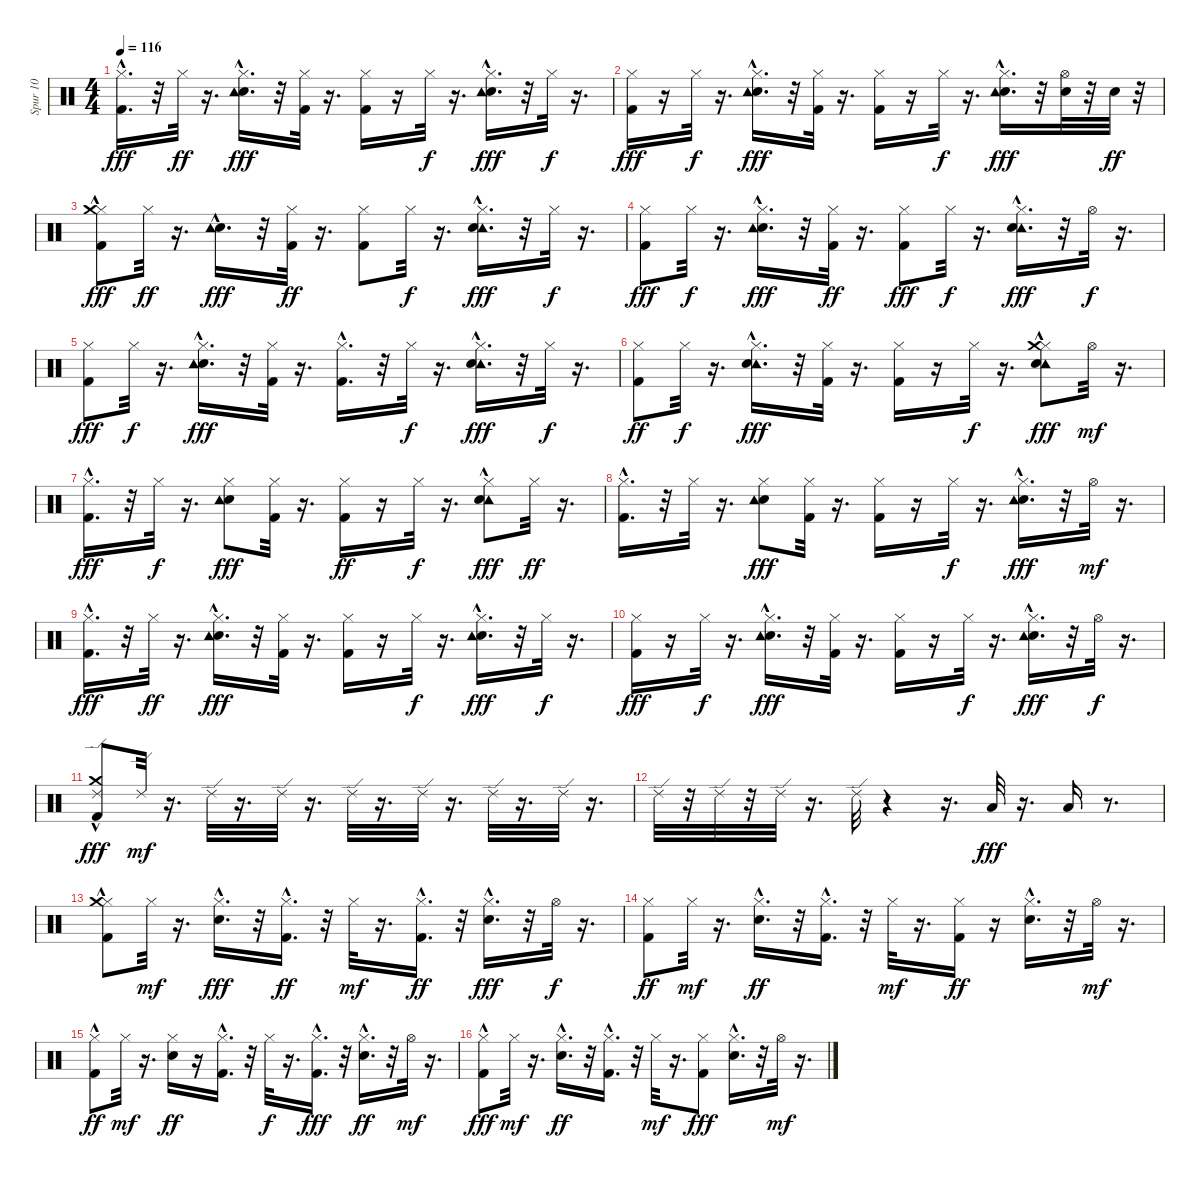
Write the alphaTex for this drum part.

\track ("Spur 10" "Spur 10") {instrument percussion}
\staff {score}
\articulation defaults
\ts (4 4)
\tempo 116
\clef neutral
\ks c
("Kick (hit) 2"{hac} "Hi-Hat (closed)").16{d dy fff} r.32 "Hi-Hat (closed)".32{dy ff} r.16{d} ("Hi-Hat (closed)" "Snare (hit) 2"{hac} "Tambourine (hit)"{hac}).16{d dy fff} r.32 ("Kick (hit) 2" "Hi-Hat (closed)").32 r.16{d} ("Kick (hit) 2" "Hi-Hat (closed)").16 r.16 "Hi-Hat (closed)".32{dy f} r.16{d} ("Hi-Hat (closed)" "Snare (hit) 2"{hac} "Tambourine (hit)"{hac}).16{d dy fff} r.32 "Hi-Hat (closed)".32{dy f} r.16{d} |
("Kick (hit) 2" "Hi-Hat (closed)").16{dy fff} r.16 "Hi-Hat (closed)".32{dy f} r.16{d} ("Hi-Hat (closed)" "Snare (hit) 2"{hac} "Tambourine (hit)"{hac}).16{d dy fff} r.32 ("Kick (hit) 2" "Hi-Hat (closed)").32 r.16{d} ("Kick (hit) 2" "Hi-Hat (closed)").16 r.16 "Hi-Hat (closed)".32{dy f} r.16{d} ("Hi-Hat (closed)" "Snare (hit) 2"{hac} "Tambourine (hit)"{hac}).16{d dy fff} r.32 ("Hi-Hat (open)" "Snare (hit) 2").32 r.32 "Snare (hit) 2".32{dy ff} r.32 |
("Kick (hit) 2" "Hi-Hat (closed)" "Crash medium (hit)"{hac}).8{dy fff} "Hi-Hat (closed)".32{dy ff} r.16{d} ("Snare (hit) 2"{hac} "Tambourine (hit)").16{d dy fff} r.32 ("Kick (hit) 2" "Hi-Hat (closed)").32{dy ff} r.16{d} ("Kick (hit) 2" "Hi-Hat (closed)").8 "Hi-Hat (closed)".32{dy f} r.16{d} ("Hi-Hat (closed)" "Tambourine (hit)"{hac} "Snare (hit) 2"{hac}).16{d dy fff} r.32 "Hi-Hat (closed)".32{dy f} r.16{d} |
("Kick (hit) 2" "Hi-Hat (closed)").8{dy fff} "Hi-Hat (closed)".32{dy f} r.16{d} ("Hi-Hat (closed)" "Snare (hit) 2"{hac} "Tambourine (hit)"{hac}).16{d dy fff} r.32 ("Kick (hit) 2" "Hi-Hat (closed)").32{dy ff} r.16{d} ("Kick (hit) 2" "Hi-Hat (closed)").8{dy fff} "Hi-Hat (closed)".32{dy f} r.16{d} ("Hi-Hat (closed)" "Tambourine (hit)"{hac} "Snare (hit) 2"{hac}).16{d dy fff} r.32 "Hi-Hat (open)".32{dy f} r.16{d} |
("Kick (hit) 2" "Hi-Hat (closed)").8{dy fff} "Hi-Hat (closed)".32{dy f} r.16{d} ("Hi-Hat (closed)" "Snare (hit) 2"{hac} "Tambourine (hit)"{hac}).16{d dy fff} r.32 ("Kick (hit) 2" "Hi-Hat (closed)").32 r.16{d} ("Kick (hit) 2"{hac} "Hi-Hat (closed)").16{d} r.32 "Hi-Hat (closed)".32{dy f} r.16{d} ("Hi-Hat (closed)" "Tambourine (hit)"{hac} "Snare (hit) 2"{hac}).16{d dy fff} r.32 "Hi-Hat (closed)".32{dy f} r.16{d} |
("Kick (hit) 2" "Hi-Hat (closed)").8{dy ff} "Hi-Hat (closed)".32{dy f} r.16{d} ("Hi-Hat (closed)" "Tambourine (hit)"{hac} "Snare (hit) 2"{hac}).16{d dy fff} r.32 ("Kick (hit) 2" "Hi-Hat (closed)").32 r.16{d} ("Kick (hit) 2" "Hi-Hat (closed)").16 r.16 "Hi-Hat (closed)".32{dy f} r.16{d} ("Hi-Hat (closed)" "Tambourine (hit)"{hac} "Snare (hit) 2"{hac} "Crash medium (hit)").8{dy fff} "Hi-Hat (open)".32{dy mf} r.16{d} |
("Kick (hit) 2"{hac} "Hi-Hat (closed)").16{d dy fff} r.32 "Hi-Hat (closed)".32{dy f} r.16{d} ("Hi-Hat (closed)" "Snare (hit) 2" "Tambourine (hit)").8{dy fff} ("Kick (hit) 2" "Hi-Hat (closed)").32 r.16{d} ("Kick (hit) 2" "Hi-Hat (closed)").16{dy ff} r.16 "Hi-Hat (closed)".32{dy f} r.16{d} ("Hi-Hat (closed)" "Tambourine (hit)" "Snare (hit) 2"{hac}).8{dy fff} "Hi-Hat (closed)".32{dy ff} r.16{d} |
("Kick (hit) 2"{hac} "Hi-Hat (closed)").16{d} r.32 "Hi-Hat (closed)".32 r.16{d} ("Hi-Hat (closed)" "Snare (hit) 2" "Tambourine (hit)").8{dy fff} ("Kick (hit) 2" "Hi-Hat (closed)").32 r.16{d} ("Kick (hit) 2" "Hi-Hat (closed)").16 r.16 "Hi-Hat (closed)".32{dy f} r.16{d} ("Hi-Hat (closed)" "Snare (hit) 2"{hac} "Tambourine (hit)"{hac}).16{d dy fff} r.32 "Hi-Hat (open)".32{dy mf} r.16{d} |
("Kick (hit) 2"{hac} "Hi-Hat (closed)").16{d dy fff} r.32 "Hi-Hat (closed)".32{dy ff} r.16{d} ("Hi-Hat (closed)" "Snare (hit) 2"{hac} "Tambourine (hit)"{hac}).16{d dy fff} r.32 ("Kick (hit) 2" "Hi-Hat (closed)").32 r.16{d} ("Kick (hit) 2" "Hi-Hat (closed)").16 r.16 "Hi-Hat (closed)".32{dy f} r.16{d} ("Hi-Hat (closed)" "Snare (hit) 2"{hac} "Tambourine (hit)"{hac}).16{d dy fff} r.32 "Hi-Hat (closed)".32{dy f} r.16{d} |
("Kick (hit) 2" "Hi-Hat (closed)").16{dy fff} r.16 "Hi-Hat (closed)".32{dy f} r.16{d} ("Hi-Hat (closed)" "Snare (hit) 2"{hac} "Tambourine (hit)"{hac}).16{d dy fff} r.32 ("Kick (hit) 2" "Hi-Hat (closed)").32 r.16{d} ("Kick (hit) 2" "Hi-Hat (closed)").16 r.16 "Hi-Hat (closed)".32{dy f} r.16{d} ("Hi-Hat (closed)" "Snare (hit) 2"{hac} "Tambourine (hit)"{hac}).16{d dy fff} r.32 "Hi-Hat (open)".32{dy f} r.16{d} |
("Kick (hit) 2" "Ride (edge) 2" "Crash medium (hit)"{hac}).8{dy fff} "Ride (edge) 2".32{dy mf} r.16{d} "Ride (edge) 2".32 r.16{d} "Ride (edge) 2".32 r.16{d} "Ride (edge) 2".32 r.16{d} "Ride (edge) 2".32 r.16{d} "Ride (edge) 2".32 r.16{d} "Ride (edge) 2".32 r.16{d} |
"Ride (edge) 2".32 r.32 "Ride (edge) 2".32 r.32 "Ride (edge) 2".32 r.16{d} "Ride (edge) 2".32 r.4 r.16{d} "Low Tom (hit)".32{dy fff} r.16{d} "Low Tom (hit)".16 r.8{d} |
("Hi-Hat (closed)" "Kick (hit) 2"{hac} "Crash medium (hit)").8 "Hi-Hat (closed)".32{dy mf} r.16{d} ("Hi-Hat (closed)" "Snare (hit) 2"{hac}).16{d dy fff} r.32 ("Hi-Hat (closed)" "Kick (hit) 2"{hac}).16{d dy ff} r.32 "Hi-Hat (closed)".32{dy mf} r.16{d} ("Hi-Hat (closed)" "Kick (hit) 2"{hac}).16{d dy ff} r.32 ("Hi-Hat (closed)" "Snare (hit) 2"{hac}).16{d dy fff} r.32 "Hi-Hat (open)".32{dy f} r.16{d} |
("Hi-Hat (closed)" "Kick (hit) 2").8{dy ff} "Hi-Hat (closed)".32{dy mf} r.16{d} ("Hi-Hat (closed)" "Snare (hit) 2"{hac}).16{d dy ff} r.32 ("Hi-Hat (closed)" "Kick (hit) 2"{hac}).16{d} r.32 "Hi-Hat (closed)".32{dy mf} r.16{d} ("Hi-Hat (closed)" "Kick (hit) 2").16{dy ff} r.16 ("Hi-Hat (closed)" "Snare (hit) 2"{hac}).16{d} r.32 "Hi-Hat (open)".32{dy mf} r.16{d} |
("Hi-Hat (closed)" "Kick (hit) 2"{hac}).8{dy ff} "Hi-Hat (closed)".32{dy mf} r.16{d} ("Hi-Hat (closed)" "Snare (hit) 2").16{dy ff} r.16 ("Hi-Hat (closed)" "Kick (hit) 2"{hac}).16{d} r.32 "Hi-Hat (closed)".32{dy f} r.16{d} ("Hi-Hat (closed)" "Kick (hit) 2"{hac}).16{d dy fff} r.32 ("Hi-Hat (closed)" "Snare (hit) 2"{hac}).16{d dy ff} r.32 "Hi-Hat (open)".32{dy mf} r.16{d} |
("Hi-Hat (closed)" "Kick (hit) 2"{hac}).8{dy fff} "Hi-Hat (closed)".32{dy mf} r.16{d} ("Hi-Hat (closed)" "Snare (hit) 2"{hac}).16{d dy ff} r.32 ("Hi-Hat (closed)" "Kick (hit) 2"{hac}).16{d} r.32 "Hi-Hat (closed)".32{dy mf} r.16{d} ("Hi-Hat (closed)" "Kick (hit) 2").8{dy fff} ("Hi-Hat (closed)" "Snare (hit) 2"{hac}).16{d} r.32 "Hi-Hat (open)".32{dy mf} r.16{d}
